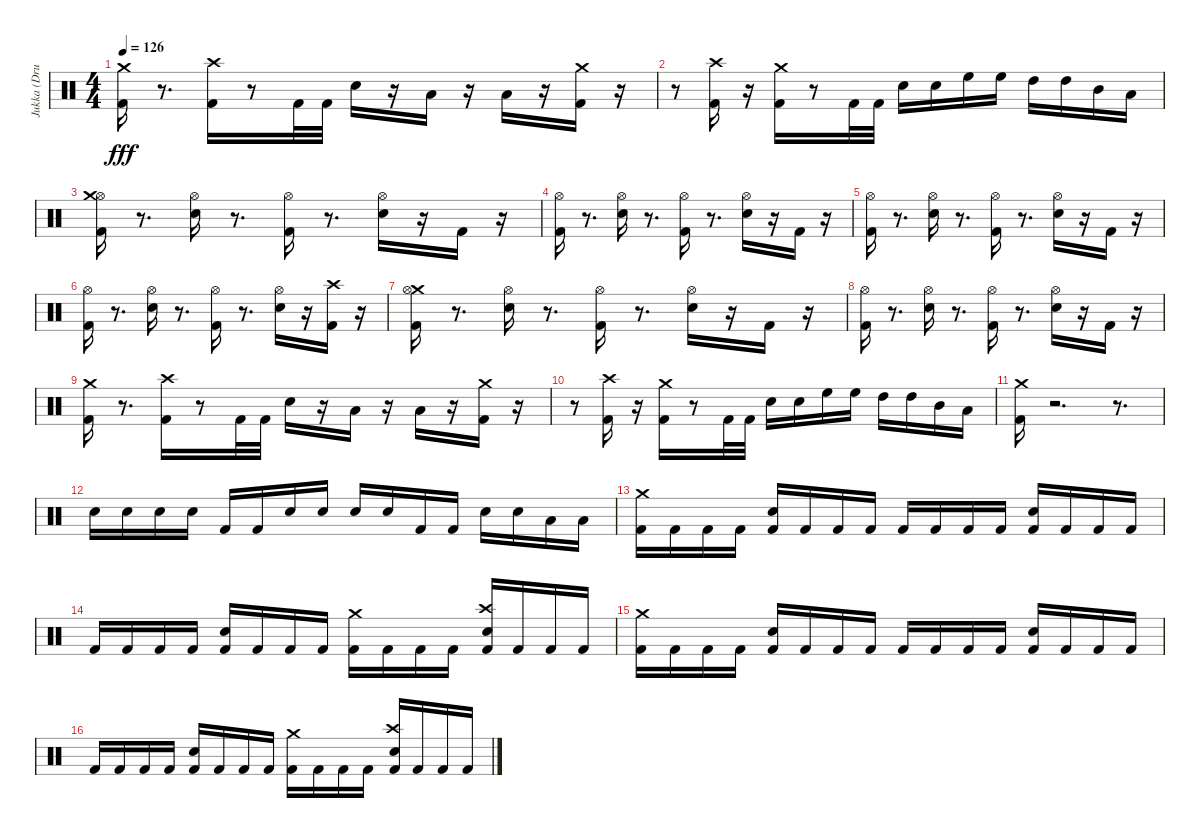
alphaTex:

\track ("Jukka (Drums)" "Jukka (Dru") {instrument percussion}
\staff {score}
\articulation defaults
\ts (4 4)
\tempo 126
\clef neutral
\ks c
("Kick (hit) 2" "Crash medium (hit)").16{dy fff} r.8{d} ("Kick (hit) 2" "Crash high (hit)").16 r.8 "Kick (hit) 2".32 "Kick (hit) 2".32 "Electric Snare (hit)".16 r.16 "Low Tom (hit)".16 r.16 "Low Floor Tom (hit)".16 r.16 ("Kick (hit) 2" "Crash medium (hit)").16 r.16 |
r.8 ("Kick (hit) 2" "Crash high (hit)").16 r.16 ("Kick (hit) 2" "Crash medium (hit)").16 r.8 "Kick (hit) 2".32 "Kick (hit) 2".32 "Electric Snare (hit)".16 "Electric Snare (hit)".16 "High Floor Tom (hit)".16 "High Floor Tom (hit)".16 "High Tom (hit)".16 "High Tom (hit)".16 "Mid Tom (hit)".16 "Low Tom (hit)".16 |
("Kick (hit) 2" "Hi-Hat (open)" "Crash medium (hit)").16 r.8{d} ("Electric Snare (hit)" "Hi-Hat (open)").16 r.8{d} ("Kick (hit) 2" "Hi-Hat (open)").16 r.8{d} ("Electric Snare (hit)" "Hi-Hat (open)").16 r.16 "Kick (hit) 2".16 r.16 |
("Kick (hit) 2" "Hi-Hat (open)").16 r.8{d} ("Electric Snare (hit)" "Hi-Hat (open)").16 r.8{d} ("Kick (hit) 2" "Hi-Hat (open)").16 r.8{d} ("Electric Snare (hit)" "Hi-Hat (open)").16 r.16 "Kick (hit) 2".16 r.16 |
("Kick (hit) 2" "Hi-Hat (open)").16 r.8{d} ("Electric Snare (hit)" "Hi-Hat (open)").16 r.8{d} ("Kick (hit) 2" "Hi-Hat (open)").16 r.8{d} ("Electric Snare (hit)" "Hi-Hat (open)").16 r.16 "Kick (hit) 2".16 r.16 |
("Kick (hit) 2" "Hi-Hat (open)").16 r.8{d} ("Electric Snare (hit)" "Hi-Hat (open)").16 r.8{d} ("Kick (hit) 2" "Hi-Hat (open)").16 r.8{d} ("Electric Snare (hit)" "Hi-Hat (open)").16 r.16 ("Kick (hit) 2" "Crash high (hit)").16 r.16 |
("Kick (hit) 2" "Crash medium (hit)" "Hi-Hat (open)").16 r.8{d} ("Electric Snare (hit)" "Hi-Hat (open)").16 r.8{d} ("Kick (hit) 2" "Hi-Hat (open)").16 r.8{d} ("Electric Snare (hit)" "Hi-Hat (open)").16 r.16 "Kick (hit) 2".16 r.16 |
("Kick (hit) 2" "Hi-Hat (open)").16 r.8{d} ("Electric Snare (hit)" "Hi-Hat (open)").16 r.8{d} ("Kick (hit) 2" "Hi-Hat (open)").16 r.8{d} ("Electric Snare (hit)" "Hi-Hat (open)").16 r.16 "Kick (hit) 2".16 r.16 |
("Kick (hit) 2" "Crash medium (hit)").16 r.8{d} ("Kick (hit) 2" "Crash high (hit)").16 r.8 "Kick (hit) 2".32 "Kick (hit) 2".32 "Electric Snare (hit)".16 r.16 "Low Tom (hit)".16 r.16 "Low Floor Tom (hit)".16 r.16 ("Kick (hit) 2" "Crash medium (hit)").16 r.16 |
r.8 ("Kick (hit) 2" "Crash high (hit)").16 r.16 ("Kick (hit) 2" "Crash medium (hit)").16 r.8 "Kick (hit) 2".32 "Kick (hit) 2".32 "Electric Snare (hit)".16 "Electric Snare (hit)".16 "High Floor Tom (hit)".16 "High Floor Tom (hit)".16 "High Tom (hit)".16 "High Tom (hit)".16 "Mid Tom (hit)".16 "Low Tom (hit)".16 |
("Kick (hit) 2" "Crash medium (hit)").16 r.2{d} r.8{d} |
"Electric Snare (hit)".16 "Electric Snare (hit)".16 "Electric Snare (hit)".16 "Electric Snare (hit)".16 "Kick (hit) 2".16 "Kick (hit) 2".16 "Electric Snare (hit)".16 "Electric Snare (hit)".16 "Electric Snare (hit)".16 "Electric Snare (hit)".16 "Kick (hit) 2".16 "Kick (hit) 2".16 "Electric Snare (hit)".16 "Electric Snare (hit)".16 "Low Tom (hit)".16 "Low Floor Tom (hit)".16 |
("Kick (hit) 2" "Crash medium (hit)").16 "Kick (hit) 2".16 "Kick (hit) 2".16 "Kick (hit) 2".16 ("Kick (hit) 2" "Electric Snare (hit)").16 "Kick (hit) 2".16 "Kick (hit) 2".16 "Kick (hit) 2".16 "Kick (hit) 2".16 "Kick (hit) 2".16 "Kick (hit) 2".16 "Kick (hit) 2".16 ("Kick (hit) 2" "Electric Snare (hit)").16 "Kick (hit) 2".16 "Kick (hit) 2".16 "Kick (hit) 2".16 |
"Kick (hit) 2".16 "Kick (hit) 2".16 "Kick (hit) 2".16 "Kick (hit) 2".16 ("Kick (hit) 2" "Electric Snare (hit)").16 "Kick (hit) 2".16 "Kick (hit) 2".16 "Kick (hit) 2".16 ("Kick (hit) 2" "Crash medium (hit)").16 "Kick (hit) 2".16 "Kick (hit) 2".16 "Kick (hit) 2".16 ("Kick (hit) 2" "Electric Snare (hit)" "Crash high (hit)").16 "Kick (hit) 2".16 "Kick (hit) 2".16 "Kick (hit) 2".16 |
("Kick (hit) 2" "Crash medium (hit)").16 "Kick (hit) 2".16 "Kick (hit) 2".16 "Kick (hit) 2".16 ("Kick (hit) 2" "Electric Snare (hit)").16 "Kick (hit) 2".16 "Kick (hit) 2".16 "Kick (hit) 2".16 "Kick (hit) 2".16 "Kick (hit) 2".16 "Kick (hit) 2".16 "Kick (hit) 2".16 ("Kick (hit) 2" "Electric Snare (hit)").16 "Kick (hit) 2".16 "Kick (hit) 2".16 "Kick (hit) 2".16 |
"Kick (hit) 2".16 "Kick (hit) 2".16 "Kick (hit) 2".16 "Kick (hit) 2".16 ("Kick (hit) 2" "Electric Snare (hit)").16 "Kick (hit) 2".16 "Kick (hit) 2".16 "Kick (hit) 2".16 ("Kick (hit) 2" "Crash medium (hit)").16 "Kick (hit) 2".16 "Kick (hit) 2".16 "Kick (hit) 2".16 ("Kick (hit) 2" "Electric Snare (hit)" "Crash high (hit)").16 "Kick (hit) 2".16 "Kick (hit) 2".16 "Kick (hit) 2".16
